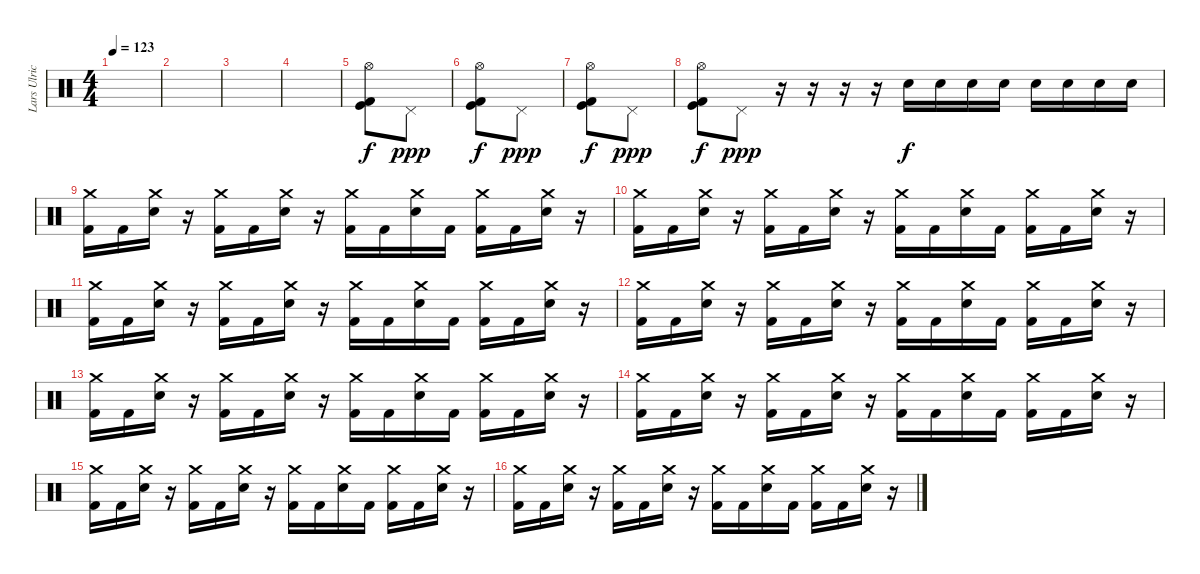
\track ("Lars Ulrich" "Lars Ulric") {instrument percussion}
\staff {score}
\articulation defaults
\ts (4 4)
\tempo 123
\tempo 180
\tempo 123
\clef neutral
\ks c
|
|
|
|
("Hi-Hat (open)" "Kick (hit)" "Kick (hit) 2").8 "Pedal Hi-Hat (hit)".8{dy ppp} |
("Hi-Hat (open)" "Kick (hit)" "Kick (hit) 2").8{dy f} "Pedal Hi-Hat (hit)".8{dy ppp} |
("Hi-Hat (open)" "Kick (hit)" "Kick (hit) 2").8{dy f} "Pedal Hi-Hat (hit)".8{dy ppp} |
("Hi-Hat (open)" "Kick (hit)" "Kick (hit) 2").8{dy f} "Pedal Hi-Hat (hit)".8{dy ppp} r.16 r.16 r.16 r.16 "Electric Snare (hit)".16{dy f} "Electric Snare (hit)".16 "Electric Snare (hit)".16 "Electric Snare (hit)".16 "Electric Snare (hit)".16 "Electric Snare (hit)".16 "Electric Snare (hit)".16 "Electric Snare (hit)".16 |
("Crash medium (hit)" "Kick (hit) 2").16 "Kick (hit) 2".16 ("Crash medium (hit)" "Electric Snare (hit)").16 r.16 ("Crash medium (hit)" "Kick (hit) 2").16 "Kick (hit) 2".16 ("Crash medium (hit)" "Electric Snare (hit)").16 r.16 ("Crash medium (hit)" "Kick (hit) 2").16 "Kick (hit) 2".16 ("Crash medium (hit)" "Electric Snare (hit)").16 "Kick (hit) 2".16 ("Crash medium (hit)" "Kick (hit) 2").16 "Kick (hit) 2".16 ("Crash medium (hit)" "Electric Snare (hit)").16 r.16 |
("Crash medium (hit)" "Kick (hit) 2").16 "Kick (hit) 2".16 ("Crash medium (hit)" "Electric Snare (hit)").16 r.16 ("Crash medium (hit)" "Kick (hit) 2").16 "Kick (hit) 2".16 ("Crash medium (hit)" "Electric Snare (hit)").16 r.16 ("Crash medium (hit)" "Kick (hit) 2").16 "Kick (hit) 2".16 ("Crash medium (hit)" "Electric Snare (hit)").16 "Kick (hit) 2".16 ("Crash medium (hit)" "Kick (hit) 2").16 "Kick (hit) 2".16 ("Crash medium (hit)" "Electric Snare (hit)").16 r.16 |
("Crash medium (hit)" "Kick (hit) 2").16 "Kick (hit) 2".16 ("Crash medium (hit)" "Electric Snare (hit)").16 r.16 ("Crash medium (hit)" "Kick (hit) 2").16 "Kick (hit) 2".16 ("Crash medium (hit)" "Electric Snare (hit)").16 r.16 ("Crash medium (hit)" "Kick (hit) 2").16 "Kick (hit) 2".16 ("Crash medium (hit)" "Electric Snare (hit)").16 "Kick (hit) 2".16 ("Crash medium (hit)" "Kick (hit) 2").16 "Kick (hit) 2".16 ("Crash medium (hit)" "Electric Snare (hit)").16 r.16 |
("Crash medium (hit)" "Kick (hit) 2").16 "Kick (hit) 2".16 ("Crash medium (hit)" "Electric Snare (hit)").16 r.16 ("Crash medium (hit)" "Kick (hit) 2").16 "Kick (hit) 2".16 ("Crash medium (hit)" "Electric Snare (hit)").16 r.16 ("Crash medium (hit)" "Kick (hit) 2").16 "Kick (hit) 2".16 ("Crash medium (hit)" "Electric Snare (hit)").16 "Kick (hit) 2".16 ("Crash medium (hit)" "Kick (hit) 2").16 "Kick (hit) 2".16 ("Crash medium (hit)" "Electric Snare (hit)").16 r.16 |
("Crash medium (hit)" "Kick (hit) 2").16 "Kick (hit) 2".16 ("Crash medium (hit)" "Electric Snare (hit)").16 r.16 ("Crash medium (hit)" "Kick (hit) 2").16 "Kick (hit) 2".16 ("Crash medium (hit)" "Electric Snare (hit)").16 r.16 ("Crash medium (hit)" "Kick (hit) 2").16 "Kick (hit) 2".16 ("Crash medium (hit)" "Electric Snare (hit)").16 "Kick (hit) 2".16 ("Crash medium (hit)" "Kick (hit) 2").16 "Kick (hit) 2".16 ("Crash medium (hit)" "Electric Snare (hit)").16 r.16 |
("Crash medium (hit)" "Kick (hit) 2").16 "Kick (hit) 2".16 ("Crash medium (hit)" "Electric Snare (hit)").16 r.16 ("Crash medium (hit)" "Kick (hit) 2").16 "Kick (hit) 2".16 ("Crash medium (hit)" "Electric Snare (hit)").16 r.16 ("Crash medium (hit)" "Kick (hit) 2").16 "Kick (hit) 2".16 ("Crash medium (hit)" "Electric Snare (hit)").16 "Kick (hit) 2".16 ("Crash medium (hit)" "Kick (hit) 2").16 "Kick (hit) 2".16 ("Crash medium (hit)" "Electric Snare (hit)").16 r.16 |
("Crash medium (hit)" "Kick (hit) 2").16 "Kick (hit) 2".16 ("Crash medium (hit)" "Electric Snare (hit)").16 r.16 ("Crash medium (hit)" "Kick (hit) 2").16 "Kick (hit) 2".16 ("Crash medium (hit)" "Electric Snare (hit)").16 r.16 ("Crash medium (hit)" "Kick (hit) 2").16 "Kick (hit) 2".16 ("Crash medium (hit)" "Electric Snare (hit)").16 "Kick (hit) 2".16 ("Crash medium (hit)" "Kick (hit) 2").16 "Kick (hit) 2".16 ("Crash medium (hit)" "Electric Snare (hit)").16 r.16 |
("Crash medium (hit)" "Kick (hit) 2").16 "Kick (hit) 2".16 ("Crash medium (hit)" "Electric Snare (hit)").16 r.16 ("Crash medium (hit)" "Kick (hit) 2").16 "Kick (hit) 2".16 ("Crash medium (hit)" "Electric Snare (hit)").16 r.16 ("Crash medium (hit)" "Kick (hit) 2").16 "Kick (hit) 2".16 ("Crash medium (hit)" "Electric Snare (hit)").16 "Kick (hit) 2".16 ("Crash medium (hit)" "Kick (hit) 2").16 "Kick (hit) 2".16 ("Crash medium (hit)" "Electric Snare (hit)").16 r.16
